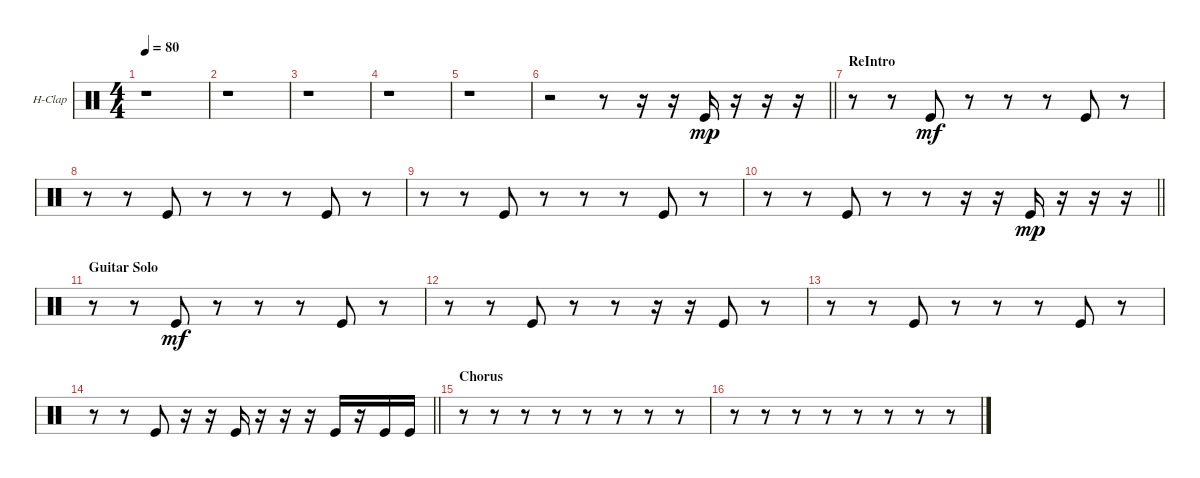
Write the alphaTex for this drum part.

\bracketExtendMode groupsimilarinstruments
\firstSystemTrackNameOrientation horizontal
\otherSystemsTrackNameOrientation horizontal
\track ("Hand Clap" "H-Clap") {instrument percussion}
\staff {score}
\articulation defaults
\ts (4 4)
\tempo 80
\clef neutral
\ks c
r.1{dy mp} |
r.1 |
r.1 |
r.1 |
r.1 |
\barLineRight lightlight
r.2 r.8 r.16 r.16 "Kick (hit)".16 r.16 r.16 r.16 |
\section ("" "ReIntro")
r.8 r.8 "Kick (hit)".8{dy mf} r.8 r.8 r.8 "Kick (hit)".8 r.8 |
r.8 r.8 "Kick (hit)".8 r.8 r.8 r.8 "Kick (hit)".8 r.8 |
r.8 r.8 "Kick (hit)".8 r.8 r.8 r.8 "Kick (hit)".8 r.8 |
\barLineRight lightlight
r.8 r.8 "Kick (hit)".8 r.8 r.8 r.16 r.16 "Kick (hit)".16{dy mp} r.16 r.16 r.16 |
\section ("" "Guitar Solo")
r.8 r.8 "Kick (hit)".8{dy mf} r.8 r.8 r.8 "Kick (hit)".8 r.8 |
r.8 r.8 "Kick (hit)".8 r.8 r.8 r.16 r.16 "Kick (hit)".8 r.8 |
r.8 r.8 "Kick (hit)".8 r.8 r.8 r.8 "Kick (hit)".8 r.8 |
\barLineRight lightlight
r.8 r.8 "Kick (hit)".8 r.16 r.16 "Kick (hit)".16 r.16 r.16 r.16 "Kick (hit)".16 r.16 "Kick (hit)".16 "Kick (hit)".16 |
\section ("" "Chorus")
r.8 r.8 r.8 r.8 r.8 r.8 r.8 r.8 |
r.8 r.8 r.8 r.8 r.8 r.8 r.8 r.8
